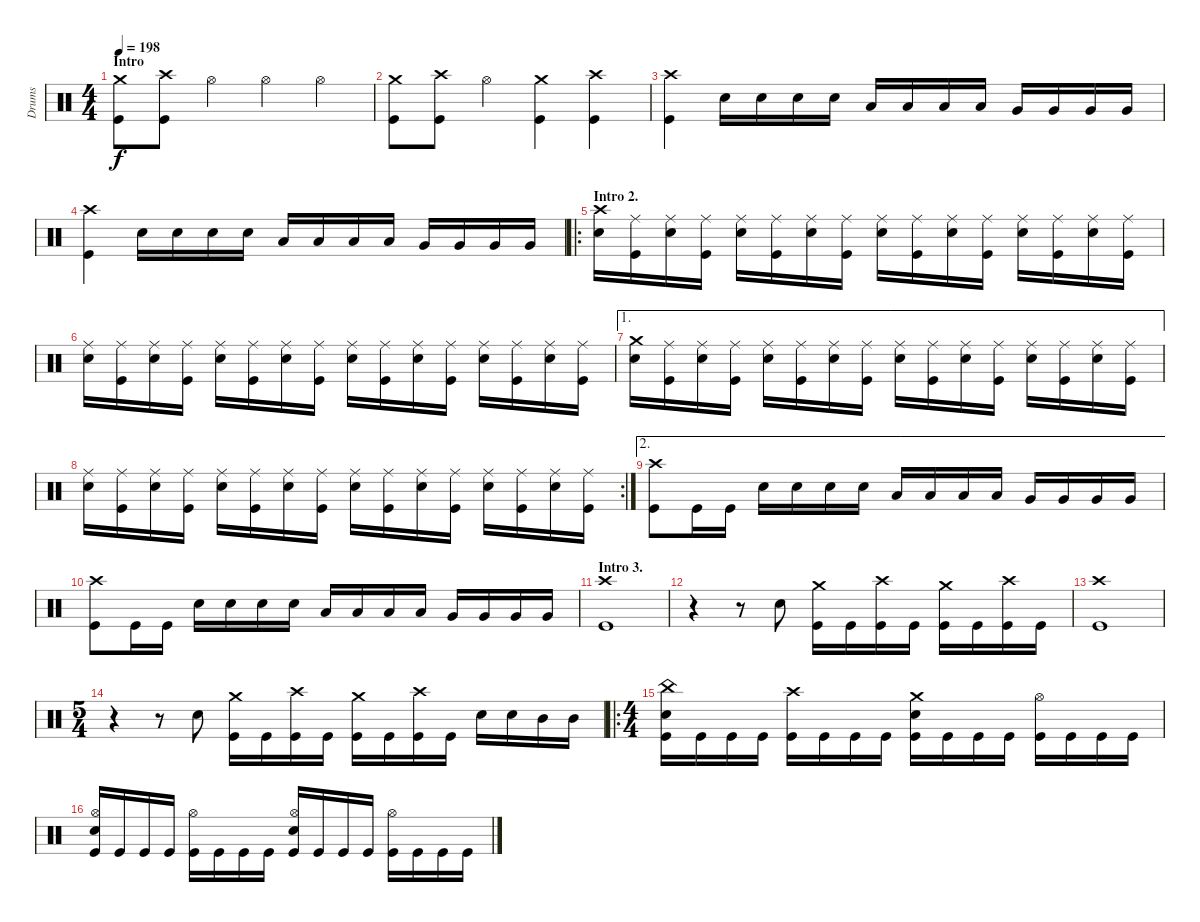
\track ("Drums" "Drums") {instrument percussion}
\staff {score}
\articulation defaults
\ts (4 4)
\section ("" "Intro")
\tempo 198
\clef neutral
\ks c
("Crash medium (hit)" "Kick (hit)").8{dy f} ("Crash high (hit)" "Kick (hit)").8 "Hi-Hat (open)".4 "Hi-Hat (open)".4 "Hi-Hat (open)".4 |
("Crash medium (hit)" "Kick (hit)").8 ("Crash high (hit)" "Kick (hit)").8 "Hi-Hat (open)".4 ("Crash medium (hit)" "Kick (hit)").4 ("Crash high (hit)" "Kick (hit)").4 |
("Crash high (hit)" "Kick (hit)").4 "Snare (hit) 2".16 "Snare (hit) 2".16 "Snare (hit) 2".16 "Snare (hit) 2".16 "Low Tom (hit)".16 "Low Tom (hit)".16 "Low Tom (hit)".16 "Low Tom (hit)".16 "Very Low Tom (hit)".16 "Very Low Tom (hit)".16 "Very Low Tom (hit)".16 "Very Low Tom (hit)".16 |
("Crash high (hit)" "Kick (hit)").4 "Snare (hit) 2".16 "Snare (hit) 2".16 "Snare (hit) 2".16 "Snare (hit) 2".16 "Low Tom (hit)".16 "Low Tom (hit)".16 "Low Tom (hit)".16 "Low Tom (hit)".16 "Very Low Tom (hit)".16 "Very Low Tom (hit)".16 "Very Low Tom (hit)".16 "Very Low Tom (hit)".16 |
\ro
\section ("" "Intro 2.")
("Crash high (hit)" "Snare (hit) 2").16 ("Ride (middle)" "Kick (hit)").16 ("Ride (middle)" "Snare (hit) 2").16 ("Ride (middle)" "Kick (hit)").16 ("Ride (middle)" "Snare (hit) 2").16 ("Ride (middle)" "Kick (hit)").16 ("Ride (middle)" "Snare (hit) 2").16 ("Ride (middle)" "Kick (hit)").16 ("Ride (middle)" "Snare (hit) 2").16 ("Ride (middle)" "Kick (hit)").16 ("Ride (middle)" "Snare (hit) 2").16 ("Ride (middle)" "Kick (hit)").16 ("Ride (middle)" "Snare (hit) 2").16 ("Ride (middle)" "Kick (hit)").16 ("Ride (middle)" "Snare (hit) 2").16 ("Ride (middle)" "Kick (hit)").16 |
("Ride (middle)" "Snare (hit) 2").16 ("Ride (middle)" "Kick (hit)").16 ("Ride (middle)" "Snare (hit) 2").16 ("Ride (middle)" "Kick (hit)").16 ("Ride (middle)" "Snare (hit) 2").16 ("Ride (middle)" "Kick (hit)").16 ("Ride (middle)" "Snare (hit) 2").16 ("Ride (middle)" "Kick (hit)").16 ("Ride (middle)" "Snare (hit) 2").16 ("Ride (middle)" "Kick (hit)").16 ("Ride (middle)" "Snare (hit) 2").16 ("Ride (middle)" "Kick (hit)").16 ("Ride (middle)" "Snare (hit) 2").16 ("Ride (middle)" "Kick (hit)").16 ("Ride (middle)" "Snare (hit) 2").16 ("Ride (middle)" "Kick (hit)").16 |
\ae 1
("Crash medium (hit)" "Snare (hit) 2").16 ("Ride (middle)" "Kick (hit)").16 ("Ride (middle)" "Snare (hit) 2").16 ("Ride (middle)" "Kick (hit)").16 ("Ride (middle)" "Snare (hit) 2").16 ("Ride (middle)" "Kick (hit)").16 ("Ride (middle)" "Snare (hit) 2").16 ("Ride (middle)" "Kick (hit)").16 ("Ride (middle)" "Snare (hit) 2").16 ("Ride (middle)" "Kick (hit)").16 ("Ride (middle)" "Snare (hit) 2").16 ("Ride (middle)" "Kick (hit)").16 ("Ride (middle)" "Snare (hit) 2").16 ("Ride (middle)" "Kick (hit)").16 ("Ride (middle)" "Snare (hit) 2").16 ("Ride (middle)" "Kick (hit)").16 |
\rc 2
("Ride (middle)" "Snare (hit) 2").16 ("Ride (middle)" "Kick (hit)").16 ("Ride (middle)" "Snare (hit) 2").16 ("Ride (middle)" "Kick (hit)").16 ("Ride (middle)" "Snare (hit) 2").16 ("Ride (middle)" "Kick (hit)").16 ("Ride (middle)" "Snare (hit) 2").16 ("Ride (middle)" "Kick (hit)").16 ("Ride (middle)" "Snare (hit) 2").16 ("Ride (middle)" "Kick (hit)").16 ("Ride (middle)" "Snare (hit) 2").16 ("Ride (middle)" "Kick (hit)").16 ("Ride (middle)" "Snare (hit) 2").16 ("Ride (middle)" "Kick (hit)").16 ("Ride (middle)" "Snare (hit) 2").16 ("Ride (middle)" "Kick (hit)").16 |
\ae 2
("Crash high (hit)" "Kick (hit)").8 "Kick (hit)".16 "Kick (hit)".16 "Snare (hit) 2".16 "Snare (hit) 2".16 "Snare (hit) 2".16 "Snare (hit) 2".16 "Low Tom (hit)".16 "Low Tom (hit)".16 "Low Tom (hit)".16 "Low Tom (hit)".16 "Very Low Tom (hit)".16 "Very Low Tom (hit)".16 "Very Low Tom (hit)".16 "Very Low Tom (hit)".16 |
("Crash high (hit)" "Kick (hit)").8 "Kick (hit)".16 "Kick (hit)".16 "Snare (hit) 2".16 "Snare (hit) 2".16 "Snare (hit) 2".16 "Snare (hit) 2".16 "Low Tom (hit)".16 "Low Tom (hit)".16 "Low Tom (hit)".16 "Low Tom (hit)".16 "Very Low Tom (hit)".16 "Very Low Tom (hit)".16 "Very Low Tom (hit)".16 "Very Low Tom (hit)".16 |
\section ("" "Intro 3.")
("Crash high (hit)" "Kick (hit)").1 |
r.4 r.8 "Snare (hit) 2".8 ("Crash medium (hit)" "Kick (hit)").16 "Kick (hit)".16 ("Crash high (hit)" "Kick (hit)").16 "Kick (hit)".16 ("Crash medium (hit)" "Kick (hit)").16 "Kick (hit)".16 ("Crash high (hit)" "Kick (hit)").16 "Kick (hit)".16 |
("Crash high (hit)" "Kick (hit)").1 |
\ts (5 4)
r.4 r.8 "Snare (hit) 2".8 ("Crash medium (hit)" "Kick (hit)").16 "Kick (hit)".16 ("Crash high (hit)" "Kick (hit)").16 "Kick (hit)".16 ("Crash medium (hit)" "Kick (hit)").16 "Kick (hit)".16 ("Crash high (hit)" "Kick (hit)").16 "Kick (hit)".16 "Snare (hit) 2".16 "Snare (hit) 2".16 "Mid Tom (hit)".16 "Mid Tom (hit)".16 |
\ro
\ts (4 4)
("China (hit)" "Snare (hit) 2" "Kick (hit)").16 "Kick (hit)".16 "Kick (hit)".16 "Kick (hit)".16 ("Crash high (hit)" "Kick (hit)").16 "Kick (hit)".16 "Kick (hit)".16 "Kick (hit)".16 ("Crash medium (hit)" "Snare (hit) 2" "Kick (hit)").16 "Kick (hit)".16 "Kick (hit)".16 "Kick (hit)".16 ("Hi-Hat (open)" "Kick (hit)").16 "Kick (hit)".16 "Kick (hit)".16 "Kick (hit)".16 |
("Hi-Hat (open)" "Snare (hit) 2" "Kick (hit)").16 "Kick (hit)".16 "Kick (hit)".16 "Kick (hit)".16 ("Hi-Hat (open)" "Kick (hit)").16 "Kick (hit)".16 "Kick (hit)".16 "Kick (hit)".16 ("Hi-Hat (open)" "Snare (hit) 2" "Kick (hit)").16 "Kick (hit)".16 "Kick (hit)".16 "Kick (hit)".16 ("Hi-Hat (open)" "Kick (hit)").16 "Kick (hit)".16 "Kick (hit)".16 "Kick (hit)".16
